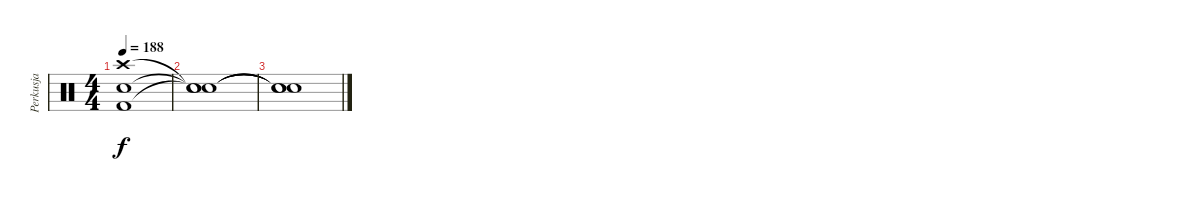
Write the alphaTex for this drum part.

\track ("Perkusja" "Perkusja") {instrument percussion}
\staff {score}
\articulation defaults
\ts (4 4)
\tempo 188
\clef neutral
\ks c
("Kick (hit) 2" "Snare (hit) 2" "Crash high (hit)").1{dy f} |
("Snare (hit)"{t} "Snare (hit)"{t} "Snare (hit)"{t}).1 |
("Snare (hit)"{t} "Snare (hit)"{t} "Snare (hit)"{t}).1
